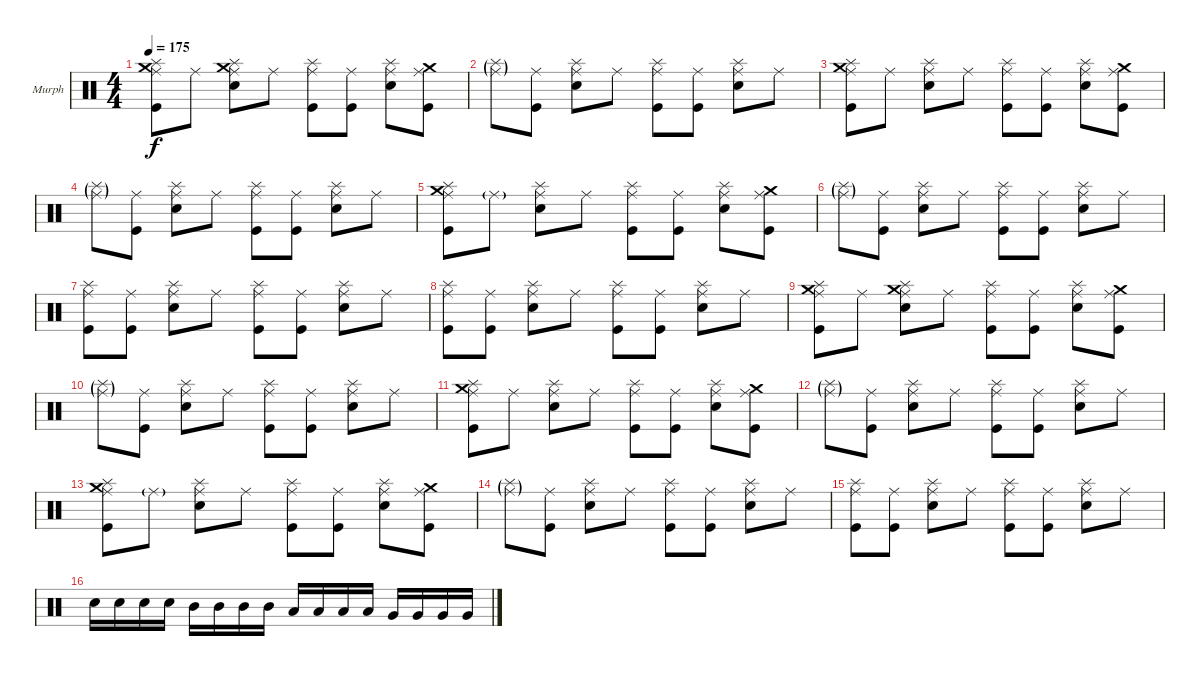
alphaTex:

\defaultSystemsLayout 4
\bracketExtendMode groupsimilarinstruments
\firstSystemTrackNameOrientation horizontal
\otherSystemsTrackNameOrientation horizontal
\track ("Murph" "Murph") {instrument percussion}
\staff {score}
\articulation defaults
\ts (4 4)
\tempo 175
\clef neutral
\scale
0.333333
\ks c
("Kick (hit)" "Ride (middle)" "Splash (hit)" "Crash medium (hit)").8{dy f} "Ride (middle)".8 ("Snare (hit) 2" "Ride (middle)" "Splash (hit)" "Crash medium (hit)").8 "Ride (middle)".8 ("Kick (hit)" "Ride (middle)" "Splash (hit)").8 ("Kick (hit)" "Ride (middle)").8 ("Snare (hit) 2" "Ride (middle)" "Splash (hit)").8 ("Kick (hit)" "Ride (middle)" "Crash medium (hit)").8 |
\scale
0.333333 ("Ride (middle)"{g} "Splash (hit)"{g}).8 ("Kick (hit)" "Ride (middle)").8 ("Snare (hit) 2" "Ride (middle)" "Splash (hit)").8 "Ride (middle)".8 ("Kick (hit)" "Ride (middle)" "Splash (hit)").8 ("Kick (hit)" "Ride (middle)").8 ("Snare (hit) 2" "Ride (middle)" "Splash (hit)").8 "Ride (middle)".8 |
\scale
0.333333 ("Kick (hit)" "Ride (middle)" "Splash (hit)" "Crash medium (hit)").8 "Ride (middle)".8 ("Snare (hit) 2" "Ride (middle)" "Splash (hit)").8 "Ride (middle)".8 ("Kick (hit)" "Ride (middle)" "Splash (hit)").8 ("Kick (hit)" "Ride (middle)").8 ("Snare (hit) 2" "Ride (middle)" "Splash (hit)").8 ("Kick (hit)" "Ride (middle)" "Crash medium (hit)").8 |
\scale
0.333333 ("Ride (middle)"{g} "Splash (hit)"{g}).8 ("Kick (hit)" "Ride (middle)").8 ("Snare (hit) 2" "Ride (middle)" "Splash (hit)").8 "Ride (middle)".8 ("Kick (hit)" "Ride (middle)" "Splash (hit)").8 ("Kick (hit)" "Ride (middle)").8 ("Snare (hit) 2" "Ride (middle)" "Splash (hit)").8 "Ride (middle)".8 |
\scale
0.333333 ("Kick (hit)" "Ride (middle)" "Splash (hit)" "Crash medium (hit)").8 "Ride (middle)"{g}.8 ("Snare (hit) 2" "Ride (middle)" "Splash (hit)").8 "Ride (middle)".8 ("Kick (hit)" "Ride (middle)" "Splash (hit)").8 ("Kick (hit)" "Ride (middle)").8 ("Snare (hit) 2" "Ride (middle)" "Splash (hit)").8 ("Kick (hit)" "Ride (middle)" "Crash medium (hit)").8 |
\scale
0.333333 ("Ride (middle)"{g} "Splash (hit)"{g}).8 ("Kick (hit)" "Ride (middle)").8 ("Snare (hit) 2" "Ride (middle)" "Splash (hit)").8 "Ride (middle)".8 ("Kick (hit)" "Ride (middle)" "Splash (hit)").8 ("Kick (hit)" "Ride (middle)").8 ("Snare (hit) 2" "Ride (middle)" "Splash (hit)").8 "Ride (middle)".8 |
\scale
0.333333 ("Kick (hit)" "Ride (middle)" "Splash (hit)").8 ("Kick (hit)" "Ride (middle)").8 ("Snare (hit) 2" "Ride (middle)" "Splash (hit)").8 "Ride (middle)".8 ("Kick (hit)" "Ride (middle)" "Splash (hit)").8 ("Kick (hit)" "Ride (middle)").8 ("Snare (hit) 2" "Ride (middle)" "Splash (hit)").8 "Ride (middle)".8 |
\scale
0.333333 ("Kick (hit)" "Ride (middle)" "Splash (hit)").8 ("Kick (hit)" "Ride (middle)").8 ("Snare (hit) 2" "Ride (middle)" "Splash (hit)").8 "Ride (middle)".8 ("Kick (hit)" "Ride (middle)" "Splash (hit)").8 ("Kick (hit)" "Ride (middle)").8 ("Snare (hit) 2" "Ride (middle)" "Splash (hit)").8 "Ride (middle)".8 |
\scale
0.333333 ("Kick (hit)" "Ride (middle)" "Splash (hit)" "Crash medium (hit)").8 "Ride (middle)".8 ("Snare (hit) 2" "Ride (middle)" "Splash (hit)" "Crash medium (hit)").8 "Ride (middle)".8 ("Kick (hit)" "Ride (middle)" "Splash (hit)").8 ("Kick (hit)" "Ride (middle)").8 ("Snare (hit) 2" "Ride (middle)" "Splash (hit)").8 ("Kick (hit)" "Ride (middle)" "Crash medium (hit)").8 |
\scale
0.333333 ("Ride (middle)"{g} "Splash (hit)"{g}).8 ("Kick (hit)" "Ride (middle)").8 ("Snare (hit) 2" "Ride (middle)" "Splash (hit)").8 "Ride (middle)".8 ("Kick (hit)" "Ride (middle)" "Splash (hit)").8 ("Kick (hit)" "Ride (middle)").8 ("Snare (hit) 2" "Ride (middle)" "Splash (hit)").8 "Ride (middle)".8 |
\scale
0.333333 ("Kick (hit)" "Ride (middle)" "Splash (hit)" "Crash medium (hit)").8 "Ride (middle)".8 ("Snare (hit) 2" "Ride (middle)" "Splash (hit)").8 "Ride (middle)".8 ("Kick (hit)" "Ride (middle)" "Splash (hit)").8 ("Kick (hit)" "Ride (middle)").8 ("Snare (hit) 2" "Ride (middle)" "Splash (hit)").8 ("Kick (hit)" "Ride (middle)" "Crash medium (hit)").8 |
\scale
0.333333 ("Ride (middle)"{g} "Splash (hit)"{g}).8 ("Kick (hit)" "Ride (middle)").8 ("Snare (hit) 2" "Ride (middle)" "Splash (hit)").8 "Ride (middle)".8 ("Kick (hit)" "Ride (middle)" "Splash (hit)").8 ("Kick (hit)" "Ride (middle)").8 ("Snare (hit) 2" "Ride (middle)" "Splash (hit)").8 "Ride (middle)".8 |
\scale
0.333333 ("Kick (hit)" "Ride (middle)" "Splash (hit)" "Crash medium (hit)").8 "Ride (middle)"{g}.8 ("Snare (hit) 2" "Ride (middle)" "Splash (hit)").8 "Ride (middle)".8 ("Kick (hit)" "Ride (middle)" "Splash (hit)").8 ("Kick (hit)" "Ride (middle)").8 ("Snare (hit) 2" "Ride (middle)" "Splash (hit)").8 ("Kick (hit)" "Ride (middle)" "Crash medium (hit)").8 |
\scale
0.333333 ("Ride (middle)"{g} "Splash (hit)"{g}).8 ("Kick (hit)" "Ride (middle)").8 ("Snare (hit) 2" "Ride (middle)" "Splash (hit)").8 "Ride (middle)".8 ("Kick (hit)" "Ride (middle)" "Splash (hit)").8 ("Kick (hit)" "Ride (middle)").8 ("Snare (hit) 2" "Ride (middle)" "Splash (hit)").8 "Ride (middle)".8 |
\scale
0.333333 ("Kick (hit)" "Ride (middle)" "Splash (hit)").8 ("Kick (hit)" "Ride (middle)").8 ("Snare (hit) 2" "Ride (middle)" "Splash (hit)").8 "Ride (middle)".8 ("Kick (hit)" "Ride (middle)" "Splash (hit)").8 ("Kick (hit)" "Ride (middle)").8 ("Snare (hit) 2" "Ride (middle)" "Splash (hit)").8 "Ride (middle)".8 |
"Snare (hit) 2".16 "Snare (hit) 2".16 "Snare (hit) 2".16 "Snare (hit) 2".16 "Mid Tom (hit)".16 "Mid Tom (hit)".16 "Mid Tom (hit)".16 "Mid Tom (hit)".16 "Low Tom (hit)".16 "Low Tom (hit)".16 "Low Tom (hit)".16 "Low Tom (hit)".16 "Very Low Tom (hit)".16 "Very Low Tom (hit)".16 "Very Low Tom (hit)".16 "Very Low Tom (hit)".16
